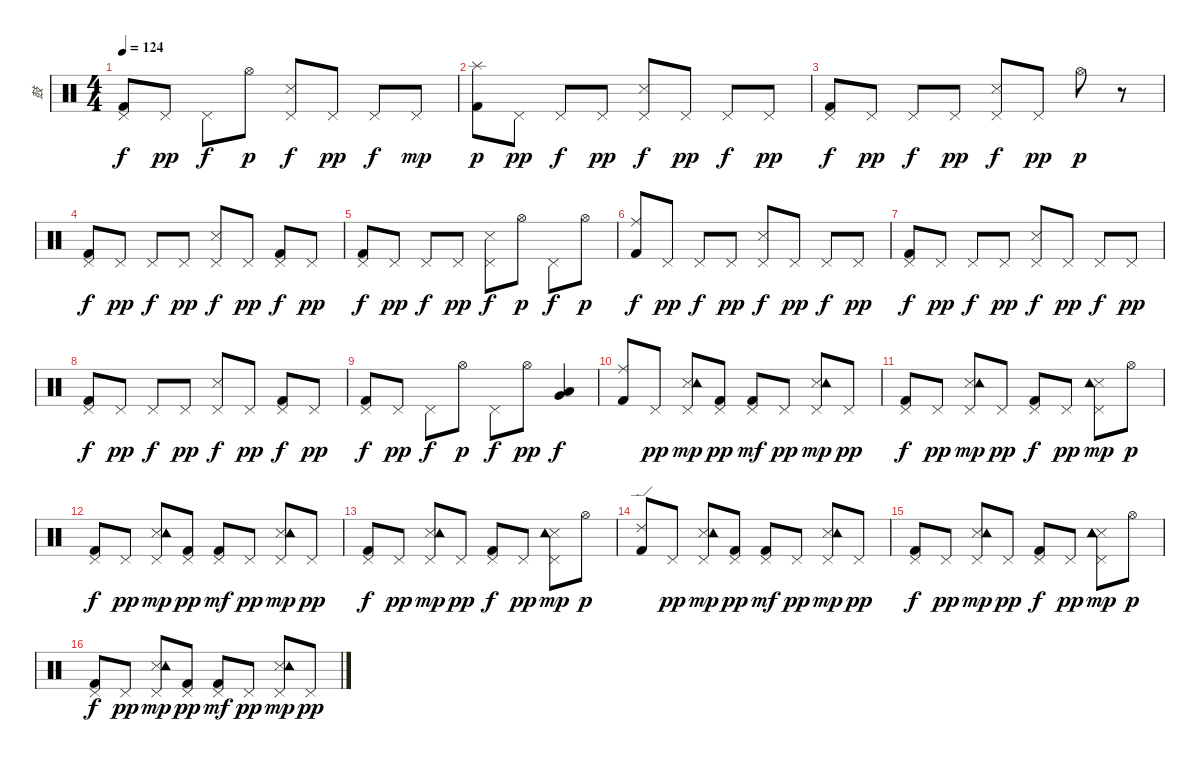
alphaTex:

\track ("鼓" "鼓") {instrument percussion}
\staff {score}
\articulation defaults
\ts (4 4)
\tempo 124
\clef neutral
\ks c
("Kick (hit) 2" "Pedal Hi-Hat (hit)").8{dy f} "Pedal Hi-Hat (hit)".8{dy pp} "Pedal Hi-Hat (hit)".8{dy f} "Hi-Hat (open)".8{dy p} ("Snare (side stick) 3" "Pedal Hi-Hat (hit)").8{dy f} "Pedal Hi-Hat (hit)".8{dy pp} "Pedal Hi-Hat (hit)".8{dy f} "Pedal Hi-Hat (hit)".8{dy mp} |
("Kick (hit) 2" "Splash (hit)").8{dy p} "Pedal Hi-Hat (hit)".8{dy pp} "Pedal Hi-Hat (hit)".8{dy f} "Pedal Hi-Hat (hit)".8{dy pp} ("Snare (side stick) 3" "Pedal Hi-Hat (hit)").8{dy f} "Pedal Hi-Hat (hit)".8{dy pp} "Pedal Hi-Hat (hit)".8{dy f} "Pedal Hi-Hat (hit)".8{dy pp} |
("Kick (hit) 2" "Pedal Hi-Hat (hit)").8{dy f} "Pedal Hi-Hat (hit)".8{dy pp} "Pedal Hi-Hat (hit)".8{dy f} "Pedal Hi-Hat (hit)".8{dy pp} ("Snare (side stick) 3" "Pedal Hi-Hat (hit)").8{dy f} "Pedal Hi-Hat (hit)".8{dy pp} "Hi-Hat (open)".8{dy p} r.8 |
("Kick (hit) 2" "Pedal Hi-Hat (hit)").8{dy f} "Pedal Hi-Hat (hit)".8{dy pp} "Pedal Hi-Hat (hit)".8{dy f} "Pedal Hi-Hat (hit)".8{dy pp} ("Snare (side stick) 3" "Pedal Hi-Hat (hit)").8{dy f} "Pedal Hi-Hat (hit)".8{dy pp} ("Kick (hit) 2" "Pedal Hi-Hat (hit)").8{dy f} "Pedal Hi-Hat (hit)".8{dy pp} |
("Kick (hit) 2" "Pedal Hi-Hat (hit)").8{dy f} "Pedal Hi-Hat (hit)".8{dy pp} "Pedal Hi-Hat (hit)".8{dy f} "Pedal Hi-Hat (hit)".8{dy pp} ("Snare (side stick) 3" "Pedal Hi-Hat (hit)").8{dy f} "Hi-Hat (open)".8{dy p} "Pedal Hi-Hat (hit)".8{dy f} "Hi-Hat (open)".8{dy p} |
("Kick (hit) 2" "Ride (middle)").8{dy f} "Pedal Hi-Hat (hit)".8{dy pp} "Pedal Hi-Hat (hit)".8{dy f} "Pedal Hi-Hat (hit)".8{dy pp} ("Snare (side stick) 3" "Pedal Hi-Hat (hit)").8{dy f} "Pedal Hi-Hat (hit)".8{dy pp} "Pedal Hi-Hat (hit)".8{dy f} "Pedal Hi-Hat (hit)".8{dy pp} |
("Kick (hit) 2" "Pedal Hi-Hat (hit)").8{dy f} "Pedal Hi-Hat (hit)".8{dy pp} "Pedal Hi-Hat (hit)".8{dy f} "Pedal Hi-Hat (hit)".8{dy pp} ("Snare (side stick) 3" "Pedal Hi-Hat (hit)").8{dy f} "Pedal Hi-Hat (hit)".8{dy pp} "Pedal Hi-Hat (hit)".8{dy f} "Pedal Hi-Hat (hit)".8{dy pp} |
("Kick (hit) 2" "Pedal Hi-Hat (hit)").8{dy f} "Pedal Hi-Hat (hit)".8{dy pp} "Pedal Hi-Hat (hit)".8{dy f} "Pedal Hi-Hat (hit)".8{dy pp} ("Snare (side stick) 3" "Pedal Hi-Hat (hit)").8{dy f} "Pedal Hi-Hat (hit)".8{dy pp} ("Kick (hit) 2" "Pedal Hi-Hat (hit)").8{dy f} "Pedal Hi-Hat (hit)".8{dy pp} |
("Kick (hit) 2" "Pedal Hi-Hat (hit)").8{dy f} "Pedal Hi-Hat (hit)".8{dy pp} "Pedal Hi-Hat (hit)".8{dy f} "Hi-Hat (open)".8{dy p} "Pedal Hi-Hat (hit)".8{dy f} "Hi-Hat (open)".8{dy pp} ("Very Low Tom (hit)" "Low Floor Tom (hit)").4{dy f} |
("Kick (hit) 2" "Ride (middle)").8 "Pedal Hi-Hat (hit)".8{dy pp} ("Snare (side stick) 3" "Pedal Hi-Hat (hit)" "Tambourine (hit)").8{dy mp} ("Kick (hit) 2" "Pedal Hi-Hat (hit)").8{dy pp} ("Kick (hit) 2" "Pedal Hi-Hat (hit)").8{dy mf} "Pedal Hi-Hat (hit)".8{dy pp} ("Snare (side stick) 3" "Pedal Hi-Hat (hit)" "Tambourine (hit)").8{dy mp} "Pedal Hi-Hat (hit)".8{dy pp} |
("Kick (hit) 2" "Pedal Hi-Hat (hit)").8{dy f} "Pedal Hi-Hat (hit)".8{dy pp} ("Snare (side stick) 3" "Pedal Hi-Hat (hit)" "Tambourine (hit)").8{dy mp} "Pedal Hi-Hat (hit)".8{dy pp} ("Kick (hit) 2" "Pedal Hi-Hat (hit)").8{dy f} "Pedal Hi-Hat (hit)".8{dy pp} ("Snare (side stick) 3" "Pedal Hi-Hat (hit)" "Tambourine (hit)").8{dy mp} "Hi-Hat (open)".8{dy p} |
("Kick (hit) 2" "Pedal Hi-Hat (hit)").8{dy f} "Pedal Hi-Hat (hit)".8{dy pp} ("Snare (side stick) 3" "Pedal Hi-Hat (hit)" "Tambourine (hit)").8{dy mp} ("Kick (hit) 2" "Pedal Hi-Hat (hit)").8{dy pp} ("Kick (hit) 2" "Pedal Hi-Hat (hit)").8{dy mf} "Pedal Hi-Hat (hit)".8{dy pp} ("Snare (side stick) 3" "Pedal Hi-Hat (hit)" "Tambourine (hit)").8{dy mp} "Pedal Hi-Hat (hit)".8{dy pp} |
("Kick (hit) 2" "Pedal Hi-Hat (hit)").8{dy f} "Pedal Hi-Hat (hit)".8{dy pp} ("Snare (side stick) 3" "Pedal Hi-Hat (hit)" "Tambourine (hit)").8{dy mp} "Pedal Hi-Hat (hit)".8{dy pp} ("Kick (hit) 2" "Pedal Hi-Hat (hit)").8{dy f} "Pedal Hi-Hat (hit)".8{dy pp} ("Snare (side stick) 3" "Pedal Hi-Hat (hit)" "Tambourine (hit)").8{dy mp} "Hi-Hat (open)".8{dy p} |
("Kick (hit) 2" "Ride (edge) 2").8 "Pedal Hi-Hat (hit)".8{dy pp} ("Snare (side stick) 3" "Pedal Hi-Hat (hit)" "Tambourine (hit)").8{dy mp} ("Kick (hit) 2" "Pedal Hi-Hat (hit)").8{dy pp} ("Kick (hit) 2" "Pedal Hi-Hat (hit)").8{dy mf} "Pedal Hi-Hat (hit)".8{dy pp} ("Snare (side stick) 3" "Pedal Hi-Hat (hit)" "Tambourine (hit)").8{dy mp} "Pedal Hi-Hat (hit)".8{dy pp} |
("Kick (hit) 2" "Pedal Hi-Hat (hit)").8{dy f} "Pedal Hi-Hat (hit)".8{dy pp} ("Snare (side stick) 3" "Pedal Hi-Hat (hit)" "Tambourine (hit)").8{dy mp} "Pedal Hi-Hat (hit)".8{dy pp} ("Kick (hit) 2" "Pedal Hi-Hat (hit)").8{dy f} "Pedal Hi-Hat (hit)".8{dy pp} ("Snare (side stick) 3" "Pedal Hi-Hat (hit)" "Tambourine (hit)" "Tambourine (hit)").8{dy mp} "Hi-Hat (open)".8{dy p} |
("Kick (hit) 2" "Pedal Hi-Hat (hit)").8{dy f} "Pedal Hi-Hat (hit)".8{dy pp} ("Snare (side stick) 3" "Pedal Hi-Hat (hit)" "Tambourine (hit)").8{dy mp} ("Kick (hit) 2" "Pedal Hi-Hat (hit)").8{dy pp} ("Kick (hit) 2" "Pedal Hi-Hat (hit)").8{dy mf} "Pedal Hi-Hat (hit)".8{dy pp} ("Snare (side stick) 3" "Pedal Hi-Hat (hit)" "Tambourine (hit)").8{dy mp} "Pedal Hi-Hat (hit)".8{dy pp}
